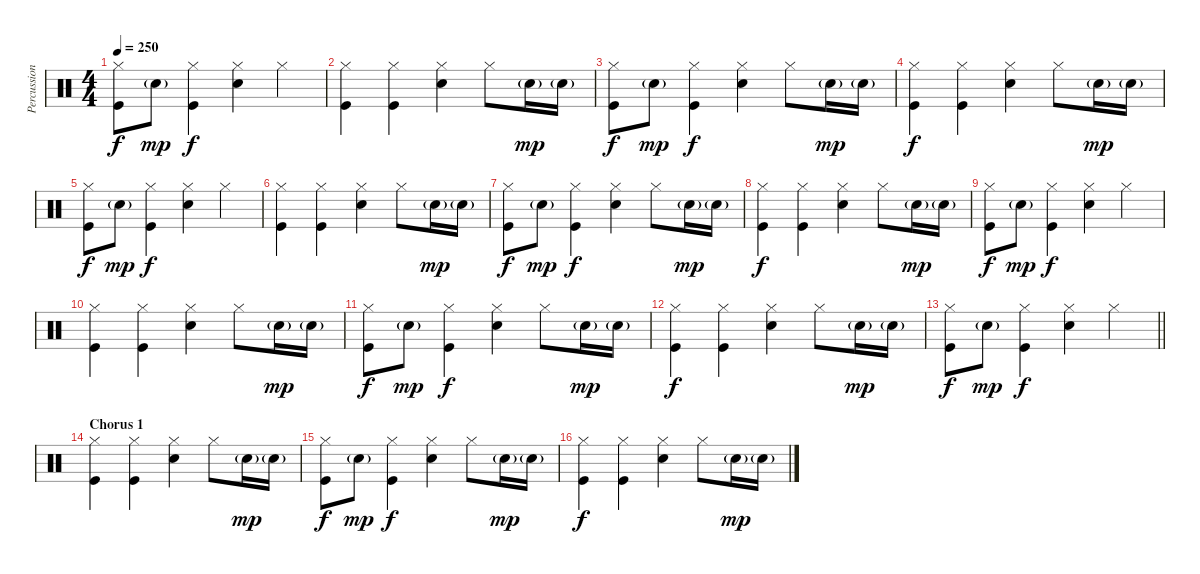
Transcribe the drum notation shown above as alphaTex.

\track ("Percussion" "Percussion") {instrument percussion}
\staff {score}
\articulation defaults
\ts (4 4)
\tempo 250
\clef neutral
\ks c
("Hi-Hat (closed)" "Kick (hit)").8{dy f} "Snare (hit) 2"{g}.8{dy mp} ("Hi-Hat (closed)" "Kick (hit)").4{dy f} ("Hi-Hat (closed)" "Snare (hit) 2").4 "Hi-Hat (closed)".4 |
("Hi-Hat (closed)" "Kick (hit)").4 ("Hi-Hat (closed)" "Kick (hit)").4 ("Hi-Hat (closed)" "Snare (hit) 2").4 "Hi-Hat (closed)".8 "Snare (hit) 2"{g}.16{dy mp} "Snare (hit) 2"{g}.16 |
("Hi-Hat (closed)" "Kick (hit)").8{dy f} "Snare (hit) 2"{g}.8{dy mp} ("Hi-Hat (closed)" "Kick (hit)").4{dy f} ("Hi-Hat (closed)" "Snare (hit) 2").4 "Hi-Hat (closed)".8 "Snare (hit) 2"{g}.16{dy mp} "Snare (hit) 2"{g}.16 |
("Hi-Hat (closed)" "Kick (hit)").4{dy f} ("Hi-Hat (closed)" "Kick (hit)").4 ("Hi-Hat (closed)" "Snare (hit) 2").4 "Hi-Hat (closed)".8 "Snare (hit) 2"{g}.16{dy mp} "Snare (hit) 2"{g}.16 |
("Hi-Hat (closed)" "Kick (hit)").8{dy f} "Snare (hit) 2"{g}.8{dy mp} ("Hi-Hat (closed)" "Kick (hit)").4{dy f} ("Hi-Hat (closed)" "Snare (hit) 2").4 "Hi-Hat (closed)".4 |
("Hi-Hat (closed)" "Kick (hit)").4 ("Hi-Hat (closed)" "Kick (hit)").4 ("Hi-Hat (closed)" "Snare (hit) 2").4 "Hi-Hat (closed)".8 "Snare (hit) 2"{g}.16{dy mp} "Snare (hit) 2"{g}.16 |
("Hi-Hat (closed)" "Kick (hit)").8{dy f} "Snare (hit) 2"{g}.8{dy mp} ("Hi-Hat (closed)" "Kick (hit)").4{dy f} ("Hi-Hat (closed)" "Snare (hit) 2").4 "Hi-Hat (closed)".8 "Snare (hit) 2"{g}.16{dy mp} "Snare (hit) 2"{g}.16 |
("Hi-Hat (closed)" "Kick (hit)").4{dy f} ("Hi-Hat (closed)" "Kick (hit)").4 ("Hi-Hat (closed)" "Snare (hit) 2").4 "Hi-Hat (closed)".8 "Snare (hit) 2"{g}.16{dy mp} "Snare (hit) 2"{g}.16 |
("Hi-Hat (closed)" "Kick (hit)").8{dy f} "Snare (hit) 2"{g}.8{dy mp} ("Hi-Hat (closed)" "Kick (hit)").4{dy f} ("Hi-Hat (closed)" "Snare (hit) 2").4 "Hi-Hat (closed)".4 |
("Hi-Hat (closed)" "Kick (hit)").4 ("Hi-Hat (closed)" "Kick (hit)").4 ("Hi-Hat (closed)" "Snare (hit) 2").4 "Hi-Hat (closed)".8 "Snare (hit) 2"{g}.16{dy mp} "Snare (hit) 2"{g}.16 |
("Hi-Hat (closed)" "Kick (hit)").8{dy f} "Snare (hit) 2"{g}.8{dy mp} ("Hi-Hat (closed)" "Kick (hit)").4{dy f} ("Hi-Hat (closed)" "Snare (hit) 2").4 "Hi-Hat (closed)".8 "Snare (hit) 2"{g}.16{dy mp} "Snare (hit) 2"{g}.16 |
("Hi-Hat (closed)" "Kick (hit)").4{dy f} ("Hi-Hat (closed)" "Kick (hit)").4 ("Hi-Hat (closed)" "Snare (hit) 2").4 "Hi-Hat (closed)".8 "Snare (hit) 2"{g}.16{dy mp} "Snare (hit) 2"{g}.16 |
\barLineRight lightlight
("Hi-Hat (closed)" "Kick (hit)").8{dy f} "Snare (hit) 2"{g}.8{dy mp} ("Hi-Hat (closed)" "Kick (hit)").4{dy f} ("Hi-Hat (closed)" "Snare (hit) 2").4 "Hi-Hat (closed)".4 |
\section ("" "Chorus 1")
("Hi-Hat (closed)" "Kick (hit)").4 ("Hi-Hat (closed)" "Kick (hit)").4 ("Hi-Hat (closed)" "Snare (hit) 2").4 "Hi-Hat (closed)".8 "Snare (hit) 2"{g}.16{dy mp} "Snare (hit) 2"{g}.16 |
("Hi-Hat (closed)" "Kick (hit)").8{dy f} "Snare (hit) 2"{g}.8{dy mp} ("Hi-Hat (closed)" "Kick (hit)").4{dy f} ("Hi-Hat (closed)" "Snare (hit) 2").4 "Hi-Hat (closed)".8 "Snare (hit) 2"{g}.16{dy mp} "Snare (hit) 2"{g}.16 |
("Hi-Hat (closed)" "Kick (hit)").4{dy f} ("Hi-Hat (closed)" "Kick (hit)").4 ("Hi-Hat (closed)" "Snare (hit) 2").4 "Hi-Hat (closed)".8 "Snare (hit) 2"{g}.16{dy mp} "Snare (hit) 2"{g}.16
